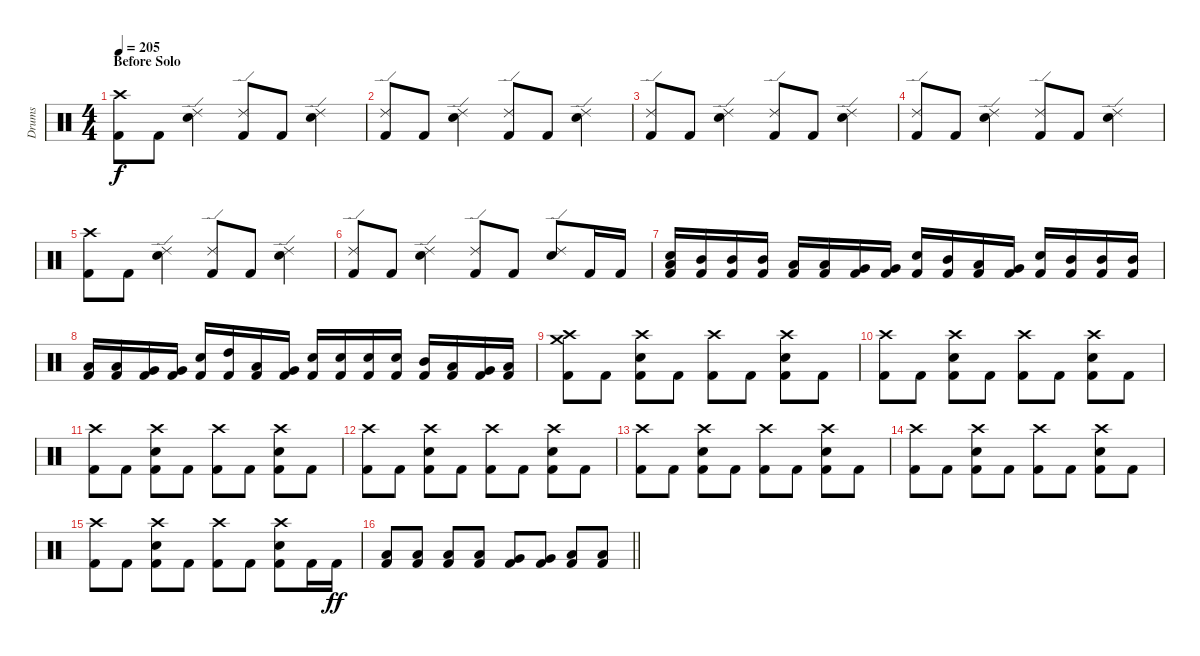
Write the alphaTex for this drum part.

\track ("Drums" "Drums") {instrument percussion}
\staff {score}
\articulation defaults
\ts (4 4)
\section ("" "Before Solo")
\tempo 205
\clef neutral
\ks c
("Crash high (hit)" "Kick (hit) 2").8{dy f} "Kick (hit) 2".8 ("Ride (edge) 2" "Snare (hit) 2").4 ("Ride (edge) 2" "Kick (hit) 2").8 "Kick (hit) 2".8 ("Ride (edge) 2" "Snare (hit) 2").4 |
("Ride (edge) 2" "Kick (hit) 2").8 "Kick (hit) 2".8 ("Ride (edge) 2" "Snare (hit) 2").4 ("Ride (edge) 2" "Kick (hit) 2").8 "Kick (hit) 2".8 ("Ride (edge) 2" "Snare (hit) 2").4 |
("Ride (edge) 2" "Kick (hit) 2").8 "Kick (hit) 2".8 ("Ride (edge) 2" "Snare (hit) 2").4 ("Ride (edge) 2" "Kick (hit) 2").8 "Kick (hit) 2".8 ("Ride (edge) 2" "Snare (hit) 2").4 |
("Ride (edge) 2" "Kick (hit) 2").8 "Kick (hit) 2".8 ("Ride (edge) 2" "Snare (hit) 2").4 ("Ride (edge) 2" "Kick (hit) 2").8 "Kick (hit) 2".8 ("Ride (edge) 2" "Snare (hit) 2").4 |
("Crash high (hit)" "Kick (hit) 2").8 "Kick (hit) 2".8 ("Ride (edge) 2" "Snare (hit) 2").4 ("Ride (edge) 2" "Kick (hit) 2").8 "Kick (hit) 2".8 ("Ride (edge) 2" "Snare (hit) 2").4 |
("Ride (edge) 2" "Kick (hit) 2").8 "Kick (hit) 2".8 ("Ride (edge) 2" "Snare (hit) 2").4 ("Ride (edge) 2" "Kick (hit) 2").8 "Kick (hit) 2".8 ("Ride (edge) 2" "Snare (hit) 2").8 "Kick (hit) 2".16 "Kick (hit) 2".16 |
("Snare (hit) 2" "Low Floor Tom (hit)" "Kick (hit) 2").16 ("Mid Tom (hit)" "Kick (hit) 2").16 ("Mid Tom (hit)" "Kick (hit) 2").16 ("Mid Tom (hit)" "Kick (hit) 2").16 ("Low Tom (hit)" "Kick (hit) 2").16 ("Low Tom (hit)" "Kick (hit) 2").16 ("Very Low Tom (hit)" "Kick (hit) 2").16 ("Very Low Tom (hit)" "Kick (hit) 2").16 ("Snare (hit) 2" "Kick (hit) 2").16 ("Mid Tom (hit)" "Kick (hit) 2").16 ("Low Tom (hit)" "Kick (hit) 2").16 ("Very Low Tom (hit)" "Kick (hit) 2").16 ("Snare (hit) 2" "Kick (hit) 2").16 ("Mid Tom (hit)" "Kick (hit) 2").16 ("Mid Tom (hit)" "Kick (hit) 2").16 ("Mid Tom (hit)" "Kick (hit) 2").16 |
("Low Tom (hit)" "Kick (hit) 2").16 ("Low Tom (hit)" "Kick (hit) 2").16 ("Very Low Tom (hit)" "Kick (hit) 2").16 ("Very Low Tom (hit)" "Kick (hit) 2").16 ("Snare (hit) 2" "Kick (hit) 2").16 ("High Tom (hit)" "Kick (hit) 2").16 ("Low Tom (hit)" "Kick (hit) 2").16 ("Very Low Tom (hit)" "Kick (hit) 2").16 ("Snare (hit) 2" "Kick (hit) 2").16 ("Snare (hit) 2" "Kick (hit) 2").16 ("Snare (hit) 2" "Kick (hit) 2").16 ("Snare (hit) 2" "Kick (hit) 2").16 ("Mid Tom (hit)" "Kick (hit) 2").16 ("Low Tom (hit)" "Kick (hit) 2").16 ("Very Low Tom (hit)" "Kick (hit) 2").16 ("Low Floor Tom (hit)" "Kick (hit) 2").16 |
("Crash medium (hit)" "Crash high (hit)" "Kick (hit) 2").8 "Kick (hit) 2".8 ("Crash high (hit)" "Snare (hit) 2" "Kick (hit) 2").8 "Kick (hit) 2".8 ("Crash high (hit)" "Kick (hit) 2").8 "Kick (hit) 2".8 ("Crash high (hit)" "Snare (hit) 2" "Kick (hit) 2").8 "Kick (hit) 2".8 |
("Crash high (hit)" "Kick (hit) 2").8 "Kick (hit) 2".8 ("Crash high (hit)" "Snare (hit) 2" "Kick (hit) 2").8 "Kick (hit) 2".8 ("Crash high (hit)" "Kick (hit) 2").8 "Kick (hit) 2".8 ("Crash high (hit)" "Snare (hit) 2" "Kick (hit) 2").8 "Kick (hit) 2".8 |
("Crash high (hit)" "Kick (hit) 2").8 "Kick (hit) 2".8 ("Crash high (hit)" "Snare (hit) 2" "Kick (hit) 2").8 "Kick (hit) 2".8 ("Crash high (hit)" "Kick (hit) 2").8 "Kick (hit) 2".8 ("Crash high (hit)" "Snare (hit) 2" "Kick (hit) 2").8 "Kick (hit) 2".8 |
("Crash high (hit)" "Kick (hit) 2").8 "Kick (hit) 2".8 ("Crash high (hit)" "Snare (hit) 2" "Kick (hit) 2").8 "Kick (hit) 2".8 ("Crash high (hit)" "Kick (hit) 2").8 "Kick (hit) 2".8 ("Crash high (hit)" "Snare (hit) 2" "Kick (hit) 2").8 "Kick (hit) 2".8 |
("Crash high (hit)" "Kick (hit) 2").8 "Kick (hit) 2".8 ("Crash high (hit)" "Snare (hit) 2" "Kick (hit) 2").8 "Kick (hit) 2".8 ("Crash high (hit)" "Kick (hit) 2").8 "Kick (hit) 2".8 ("Crash high (hit)" "Snare (hit) 2" "Kick (hit) 2").8 "Kick (hit) 2".8 |
("Crash high (hit)" "Kick (hit) 2").8 "Kick (hit) 2".8 ("Crash high (hit)" "Snare (hit) 2" "Kick (hit) 2").8 "Kick (hit) 2".8 ("Crash high (hit)" "Kick (hit) 2").8 "Kick (hit) 2".8 ("Crash high (hit)" "Snare (hit) 2" "Kick (hit) 2").8 "Kick (hit) 2".8 |
("Crash high (hit)" "Kick (hit) 2").8 "Kick (hit) 2".8 ("Crash high (hit)" "Snare (hit) 2" "Kick (hit) 2").8 "Kick (hit) 2".8 ("Crash high (hit)" "Kick (hit) 2").8 "Kick (hit) 2".8 ("Crash high (hit)" "Snare (hit) 2" "Kick (hit) 2").8 "Kick (hit) 2".16 "Kick (hit) 2".16{dy ff} |
\barLineRight lightlight
("Low Tom (hit)" "Kick (hit) 2").8 ("Low Tom (hit)" "Kick (hit) 2").8 ("Low Tom (hit)" "Kick (hit) 2").8 ("Low Tom (hit)" "Kick (hit) 2").8 ("Very Low Tom (hit)" "Kick (hit) 2").8 ("Very Low Tom (hit)" "Kick (hit) 2").8 ("Low Floor Tom (hit)" "Kick (hit) 2").8 ("Low Floor Tom (hit)" "Kick (hit) 2").8
